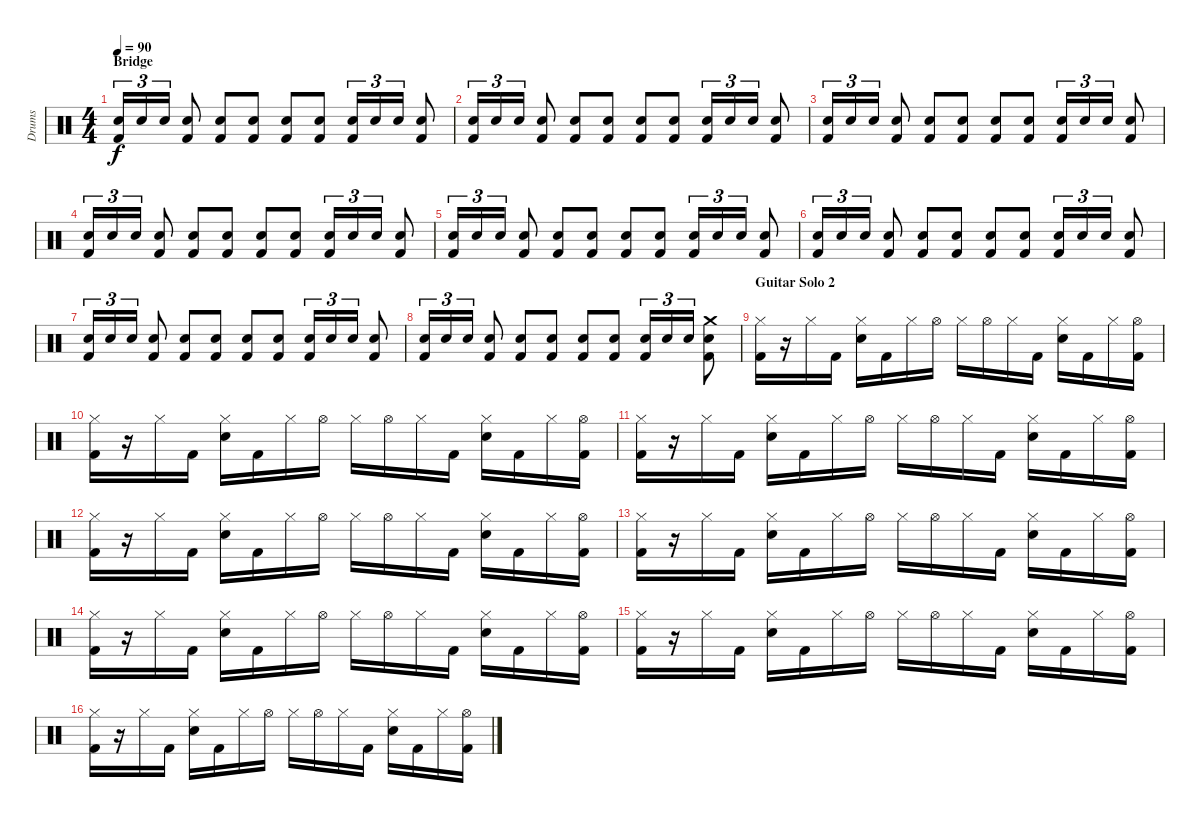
\track ("Drums" "Drums") {instrument percussion}
\staff {score}
\articulation defaults
\ts (4 4)
\section ("" "Bridge")
\tempo 90
\clef neutral
\ks c
("Snare (hit) 2" "Kick (hit) 2").16{tu (3 2) dy f} "Snare (hit) 2".16{tu (3 2)} "Snare (hit) 2".16{tu (3 2)} ("Snare (hit) 2" "Kick (hit) 2").8 ("Snare (hit) 2" "Kick (hit) 2").8 ("Snare (hit) 2" "Kick (hit) 2").8 ("Snare (hit) 2" "Kick (hit) 2").8 ("Snare (hit) 2" "Kick (hit) 2").8 ("Snare (hit) 2" "Kick (hit) 2").16{tu (3 2)} "Snare (hit) 2".16{tu (3 2)} "Snare (hit) 2".16{tu (3 2)} ("Snare (hit) 2" "Kick (hit) 2").8 |
("Snare (hit) 2" "Kick (hit) 2").16{tu (3 2)} "Snare (hit) 2".16{tu (3 2)} "Snare (hit) 2".16{tu (3 2)} ("Snare (hit) 2" "Kick (hit) 2").8 ("Snare (hit) 2" "Kick (hit) 2").8 ("Snare (hit) 2" "Kick (hit) 2").8 ("Snare (hit) 2" "Kick (hit) 2").8 ("Snare (hit) 2" "Kick (hit) 2").8 ("Snare (hit) 2" "Kick (hit) 2").16{tu (3 2)} "Snare (hit) 2".16{tu (3 2)} "Snare (hit) 2".16{tu (3 2)} ("Snare (hit) 2" "Kick (hit) 2").8 |
("Snare (hit) 2" "Kick (hit) 2").16{tu (3 2)} "Snare (hit) 2".16{tu (3 2)} "Snare (hit) 2".16{tu (3 2)} ("Snare (hit) 2" "Kick (hit) 2").8 ("Snare (hit) 2" "Kick (hit) 2").8 ("Snare (hit) 2" "Kick (hit) 2").8 ("Snare (hit) 2" "Kick (hit) 2").8 ("Snare (hit) 2" "Kick (hit) 2").8 ("Snare (hit) 2" "Kick (hit) 2").16{tu (3 2)} "Snare (hit) 2".16{tu (3 2)} "Snare (hit) 2".16{tu (3 2)} ("Snare (hit) 2" "Kick (hit) 2").8 |
("Snare (hit) 2" "Kick (hit) 2").16{tu (3 2)} "Snare (hit) 2".16{tu (3 2)} "Snare (hit) 2".16{tu (3 2)} ("Snare (hit) 2" "Kick (hit) 2").8 ("Snare (hit) 2" "Kick (hit) 2").8 ("Snare (hit) 2" "Kick (hit) 2").8 ("Snare (hit) 2" "Kick (hit) 2").8 ("Snare (hit) 2" "Kick (hit) 2").8 ("Snare (hit) 2" "Kick (hit) 2").16{tu (3 2)} "Snare (hit) 2".16{tu (3 2)} "Snare (hit) 2".16{tu (3 2)} ("Snare (hit) 2" "Kick (hit) 2").8 |
("Snare (hit) 2" "Kick (hit) 2").16{tu (3 2)} "Snare (hit) 2".16{tu (3 2)} "Snare (hit) 2".16{tu (3 2)} ("Snare (hit) 2" "Kick (hit) 2").8 ("Snare (hit) 2" "Kick (hit) 2").8 ("Snare (hit) 2" "Kick (hit) 2").8 ("Snare (hit) 2" "Kick (hit) 2").8 ("Snare (hit) 2" "Kick (hit) 2").8 ("Snare (hit) 2" "Kick (hit) 2").16{tu (3 2)} "Snare (hit) 2".16{tu (3 2)} "Snare (hit) 2".16{tu (3 2)} ("Snare (hit) 2" "Kick (hit) 2").8 |
("Snare (hit) 2" "Kick (hit) 2").16{tu (3 2)} "Snare (hit) 2".16{tu (3 2)} "Snare (hit) 2".16{tu (3 2)} ("Snare (hit) 2" "Kick (hit) 2").8 ("Snare (hit) 2" "Kick (hit) 2").8 ("Snare (hit) 2" "Kick (hit) 2").8 ("Snare (hit) 2" "Kick (hit) 2").8 ("Snare (hit) 2" "Kick (hit) 2").8 ("Snare (hit) 2" "Kick (hit) 2").16{tu (3 2)} "Snare (hit) 2".16{tu (3 2)} "Snare (hit) 2".16{tu (3 2)} ("Snare (hit) 2" "Kick (hit) 2").8 |
("Snare (hit) 2" "Kick (hit) 2").16{tu (3 2)} "Snare (hit) 2".16{tu (3 2)} "Snare (hit) 2".16{tu (3 2)} ("Snare (hit) 2" "Kick (hit) 2").8 ("Snare (hit) 2" "Kick (hit) 2").8 ("Snare (hit) 2" "Kick (hit) 2").8 ("Snare (hit) 2" "Kick (hit) 2").8 ("Snare (hit) 2" "Kick (hit) 2").8 ("Snare (hit) 2" "Kick (hit) 2").16{tu (3 2)} "Snare (hit) 2".16{tu (3 2)} "Snare (hit) 2".16{tu (3 2)} ("Snare (hit) 2" "Kick (hit) 2").8 |
("Snare (hit) 2" "Kick (hit) 2").16{tu (3 2)} "Snare (hit) 2".16{tu (3 2)} "Snare (hit) 2".16{tu (3 2)} ("Snare (hit) 2" "Kick (hit) 2").8 ("Snare (hit) 2" "Kick (hit) 2").8 ("Snare (hit) 2" "Kick (hit) 2").8 ("Snare (hit) 2" "Kick (hit) 2").8 ("Snare (hit) 2" "Kick (hit) 2").8 ("Snare (hit) 2" "Kick (hit) 2").16{tu (3 2)} "Snare (hit) 2".16{tu (3 2)} "Snare (hit) 2".16{tu (3 2)} ("Crash medium (hit)" "Snare (hit) 2" "Kick (hit) 2").8 |
\section ("" "Guitar Solo 2")
("Hi-Hat (closed)" "Kick (hit) 2").16 r.16 "Hi-Hat (closed)".16 "Kick (hit) 2".16 ("Hi-Hat (closed)" "Snare (hit) 2").16 "Kick (hit) 2".16 "Hi-Hat (closed)".16 "Hi-Hat (open)".16 "Hi-Hat (closed)".16 "Hi-Hat (open)".16 "Hi-Hat (closed)".16 "Kick (hit) 2".16 ("Hi-Hat (closed)" "Snare (hit) 2").16 "Kick (hit) 2".16 "Hi-Hat (closed)".16 ("Hi-Hat (open)" "Kick (hit) 2").16 |
("Hi-Hat (closed)" "Kick (hit) 2").16 r.16 "Hi-Hat (closed)".16 "Kick (hit) 2".16 ("Hi-Hat (closed)" "Snare (hit) 2").16 "Kick (hit) 2".16 "Hi-Hat (closed)".16 "Hi-Hat (open)".16 "Hi-Hat (closed)".16 "Hi-Hat (open)".16 "Hi-Hat (closed)".16 "Kick (hit) 2".16 ("Hi-Hat (closed)" "Snare (hit) 2").16 "Kick (hit) 2".16 "Hi-Hat (closed)".16 ("Hi-Hat (open)" "Kick (hit) 2").16 |
("Hi-Hat (closed)" "Kick (hit) 2").16 r.16 "Hi-Hat (closed)".16 "Kick (hit) 2".16 ("Hi-Hat (closed)" "Snare (hit) 2").16 "Kick (hit) 2".16 "Hi-Hat (closed)".16 "Hi-Hat (open)".16 "Hi-Hat (closed)".16 "Hi-Hat (open)".16 "Hi-Hat (closed)".16 "Kick (hit) 2".16 ("Hi-Hat (closed)" "Snare (hit) 2").16 "Kick (hit) 2".16 "Hi-Hat (closed)".16 ("Hi-Hat (open)" "Kick (hit) 2").16 |
("Hi-Hat (closed)" "Kick (hit) 2").16 r.16 "Hi-Hat (closed)".16 "Kick (hit) 2".16 ("Hi-Hat (closed)" "Snare (hit) 2").16 "Kick (hit) 2".16 "Hi-Hat (closed)".16 "Hi-Hat (open)".16 "Hi-Hat (closed)".16 "Hi-Hat (open)".16 "Hi-Hat (closed)".16 "Kick (hit) 2".16 ("Hi-Hat (closed)" "Snare (hit) 2").16 "Kick (hit) 2".16 "Hi-Hat (closed)".16 ("Hi-Hat (open)" "Kick (hit) 2").16 |
("Hi-Hat (closed)" "Kick (hit) 2").16 r.16 "Hi-Hat (closed)".16 "Kick (hit) 2".16 ("Hi-Hat (closed)" "Snare (hit) 2").16 "Kick (hit) 2".16 "Hi-Hat (closed)".16 "Hi-Hat (open)".16 "Hi-Hat (closed)".16 "Hi-Hat (open)".16 "Hi-Hat (closed)".16 "Kick (hit) 2".16 ("Hi-Hat (closed)" "Snare (hit) 2").16 "Kick (hit) 2".16 "Hi-Hat (closed)".16 ("Hi-Hat (open)" "Kick (hit) 2").16 |
("Hi-Hat (closed)" "Kick (hit) 2").16 r.16 "Hi-Hat (closed)".16 "Kick (hit) 2".16 ("Hi-Hat (closed)" "Snare (hit) 2").16 "Kick (hit) 2".16 "Hi-Hat (closed)".16 "Hi-Hat (open)".16 "Hi-Hat (closed)".16 "Hi-Hat (open)".16 "Hi-Hat (closed)".16 "Kick (hit) 2".16 ("Hi-Hat (closed)" "Snare (hit) 2").16 "Kick (hit) 2".16 "Hi-Hat (closed)".16 ("Hi-Hat (open)" "Kick (hit) 2").16 |
("Hi-Hat (closed)" "Kick (hit) 2").16 r.16 "Hi-Hat (closed)".16 "Kick (hit) 2".16 ("Hi-Hat (closed)" "Snare (hit) 2").16 "Kick (hit) 2".16 "Hi-Hat (closed)".16 "Hi-Hat (open)".16 "Hi-Hat (closed)".16 "Hi-Hat (open)".16 "Hi-Hat (closed)".16 "Kick (hit) 2".16 ("Hi-Hat (closed)" "Snare (hit) 2").16 "Kick (hit) 2".16 "Hi-Hat (closed)".16 ("Hi-Hat (open)" "Kick (hit) 2").16 |
("Hi-Hat (closed)" "Kick (hit) 2").16 r.16 "Hi-Hat (closed)".16 "Kick (hit) 2".16 ("Hi-Hat (closed)" "Snare (hit) 2").16 "Kick (hit) 2".16 "Hi-Hat (closed)".16 "Hi-Hat (open)".16 "Hi-Hat (closed)".16 "Hi-Hat (open)".16 "Hi-Hat (closed)".16 "Kick (hit) 2".16 ("Hi-Hat (closed)" "Snare (hit) 2").16 "Kick (hit) 2".16 "Hi-Hat (closed)".16 ("Hi-Hat (open)" "Kick (hit) 2").16
